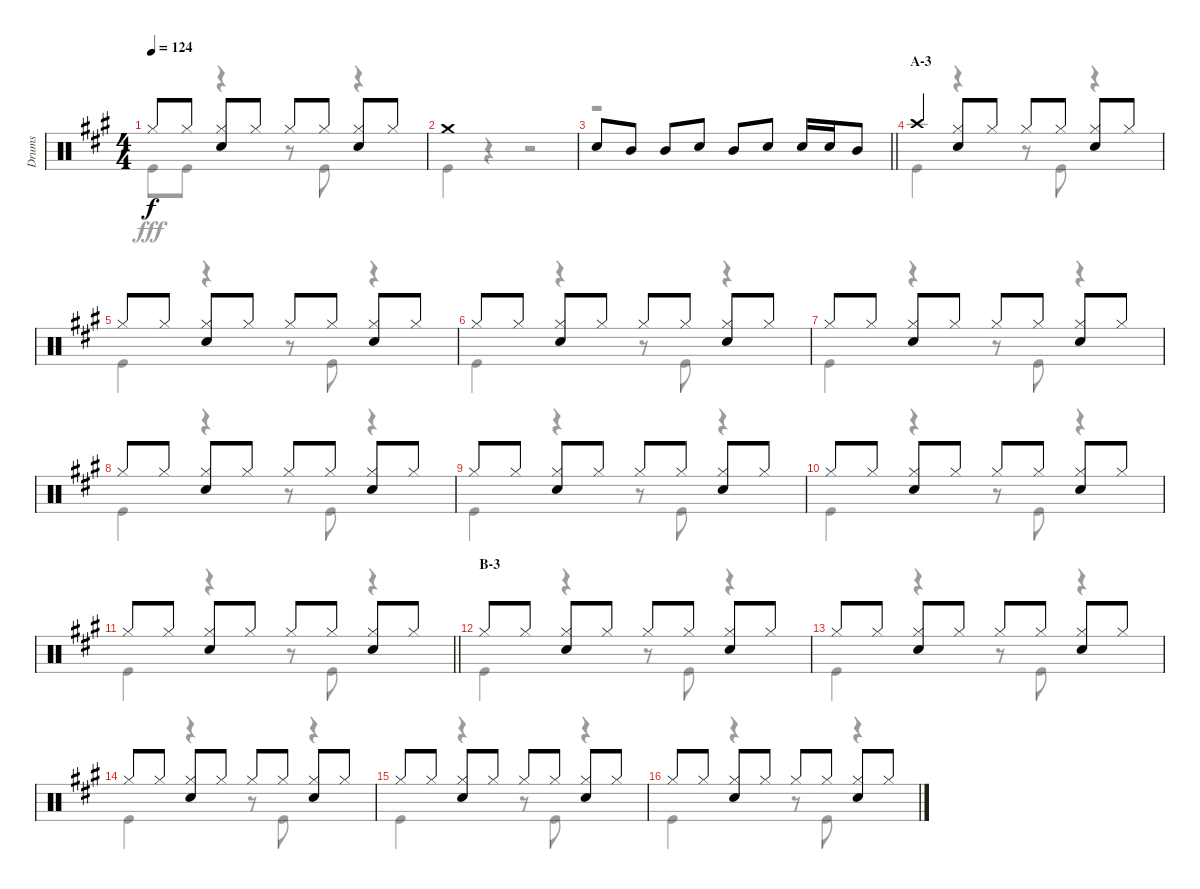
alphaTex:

\track ("Drums" "Drums") {instrument percussion}
\staff {score}
\articulation defaults
\voice
\ts (4 4)
\tempo 124
\clef neutral
\ks a "Hi-Hat (closed)".8{dy f} "Hi-Hat (closed)".8
("Hi-Hat (closed)" "Snare (hit) 2").8 "Hi-Hat (closed)".8 "Hi-Hat (closed)".8 "Hi-Hat (closed)".8 ("Hi-Hat (closed)" "Snare (hit) 2").8 "Hi-Hat (closed)".8 |
"Crash medium (hit)".1 |
\barLineRight lightlight "Snare (hit) 2".8 "Mid Tom (hit)".8 "Mid Tom (hit)".8 "Snare (hit) 2".8 "Mid Tom (hit)".8 "Snare (hit) 2".8 "Snare (hit) 2".16 "Snare (hit) 2".16 "Mid Tom (hit)".8
|
\section ("" "A-3")
"Crash high (hit)".4 ("Hi-Hat (closed)" "Snare (hit) 2").8 "Hi-Hat (closed)".8 "Hi-Hat (closed)".8 "Hi-Hat (closed)".8 ("Hi-Hat (closed)" "Snare (hit) 2").8 "Hi-Hat (closed)".8 |
"Hi-Hat (closed)".8 "Hi-Hat (closed)".8 ("Hi-Hat (closed)" "Snare (hit) 2").8 "Hi-Hat (closed)".8 "Hi-Hat (closed)".8 "Hi-Hat (closed)".8 ("Hi-Hat (closed)" "Snare (hit) 2").8 "Hi-Hat (closed)".8 |
"Hi-Hat (closed)".8 "Hi-Hat (closed)".8 ("Hi-Hat (closed)" "Snare (hit) 2").8 "Hi-Hat (closed)".8 "Hi-Hat (closed)".8 "Hi-Hat (closed)".8 ("Hi-Hat (closed)" "Snare (hit) 2").8 "Hi-Hat (closed)".8 |
"Hi-Hat (closed)".8 "Hi-Hat (closed)".8 ("Hi-Hat (closed)" "Snare (hit) 2").8 "Hi-Hat (closed)".8 "Hi-Hat (closed)".8 "Hi-Hat (closed)".8 ("Hi-Hat (closed)" "Snare (hit) 2").8 "Hi-Hat (closed)".8 |
"Hi-Hat (closed)".8 "Hi-Hat (closed)".8 ("Hi-Hat (closed)" "Snare (hit) 2").8 "Hi-Hat (closed)".8 "Hi-Hat (closed)".8 "Hi-Hat (closed)".8 ("Hi-Hat (closed)" "Snare (hit) 2").8 "Hi-Hat (closed)".8 |
"Hi-Hat (closed)".8 "Hi-Hat (closed)".8 ("Hi-Hat (closed)" "Snare (hit) 2").8 "Hi-Hat (closed)".8 "Hi-Hat (closed)".8 "Hi-Hat (closed)".8 ("Hi-Hat (closed)" "Snare (hit) 2").8 "Hi-Hat (closed)".8 |
"Hi-Hat (closed)".8 "Hi-Hat (closed)".8 ("Hi-Hat (closed)" "Snare (hit) 2").8 "Hi-Hat (closed)".8 "Hi-Hat (closed)".8 "Hi-Hat (closed)".8 ("Hi-Hat (closed)" "Snare (hit) 2").8 "Hi-Hat (closed)".8 |
\barLineRight lightlight "Hi-Hat (closed)".8 "Hi-Hat (closed)".8
("Hi-Hat (closed)" "Snare (hit) 2").8 "Hi-Hat (closed)".8 "Hi-Hat (closed)".8 "Hi-Hat (closed)".8 ("Hi-Hat (closed)" "Snare (hit) 2").8 "Hi-Hat (closed)".8 |
\section ("" "B-3")
"Hi-Hat (closed)".8 "Hi-Hat (closed)".8 ("Hi-Hat (closed)" "Snare (hit) 2").8 "Hi-Hat (closed)".8 "Hi-Hat (closed)".8 "Hi-Hat (closed)".8 ("Hi-Hat (closed)" "Snare (hit) 2").8 "Hi-Hat (closed)".8 |
"Hi-Hat (closed)".8 "Hi-Hat (closed)".8 ("Hi-Hat (closed)" "Snare (hit) 2").8 "Hi-Hat (closed)".8 "Hi-Hat (closed)".8 "Hi-Hat (closed)".8 ("Hi-Hat (closed)" "Snare (hit) 2").8 "Hi-Hat (closed)".8 |
"Hi-Hat (closed)".8 "Hi-Hat (closed)".8 ("Hi-Hat (closed)" "Snare (hit) 2").8 "Hi-Hat (closed)".8 "Hi-Hat (closed)".8 "Hi-Hat (closed)".8 ("Hi-Hat (closed)" "Snare (hit) 2").8 "Hi-Hat (closed)".8 |
"Hi-Hat (closed)".8 "Hi-Hat (closed)".8 ("Hi-Hat (closed)" "Snare (hit) 2").8 "Hi-Hat (closed)".8 "Hi-Hat (closed)".8 "Hi-Hat (closed)".8 ("Hi-Hat (closed)" "Snare (hit) 2").8 "Hi-Hat (closed)".8 |
"Hi-Hat (closed)".8 "Hi-Hat (closed)".8 ("Hi-Hat (closed)" "Snare (hit) 2").8 "Hi-Hat (closed)".8 "Hi-Hat (closed)".8 "Hi-Hat (closed)".8 ("Hi-Hat (closed)" "Snare (hit) 2").8 "Hi-Hat (closed)".8
\voice
\clef neutral
\ottava regular
\simile none
\ks a "Kick (hit)".8{dy fff} "Kick (hit)".8
r.4 r.8 "Kick (hit)".8 r.4 |
"Kick (hit)".4 r.4 r.2 |
\barLineRight lightlight
r.1 |
"Kick (hit)".4 r.4 r.8 "Kick (hit)".8 r.4 |
"Kick (hit)".4 r.4 r.8 "Kick (hit)".8 r.4 |
"Kick (hit)".4 r.4 r.8 "Kick (hit)".8 r.4 |
"Kick (hit)".4 r.4 r.8 "Kick (hit)".8 r.4 |
"Kick (hit)".4 r.4 r.8 "Kick (hit)".8 r.4 |
"Kick (hit)".4 r.4 r.8 "Kick (hit)".8 r.4 |
"Kick (hit)".4 r.4 r.8 "Kick (hit)".8 r.4 |
\barLineRight lightlight "Kick (hit)".4
r.4 r.8 "Kick (hit)".8 r.4 |
"Kick (hit)".4 r.4 r.8 "Kick (hit)".8 r.4 |
"Kick (hit)".4 r.4 r.8 "Kick (hit)".8 r.4 |
"Kick (hit)".4 r.4 r.8 "Kick (hit)".8 r.4 |
"Kick (hit)".4 r.4 r.8 "Kick (hit)".8 r.4 |
"Kick (hit)".4 r.4 r.8 "Kick (hit)".8 r.4
